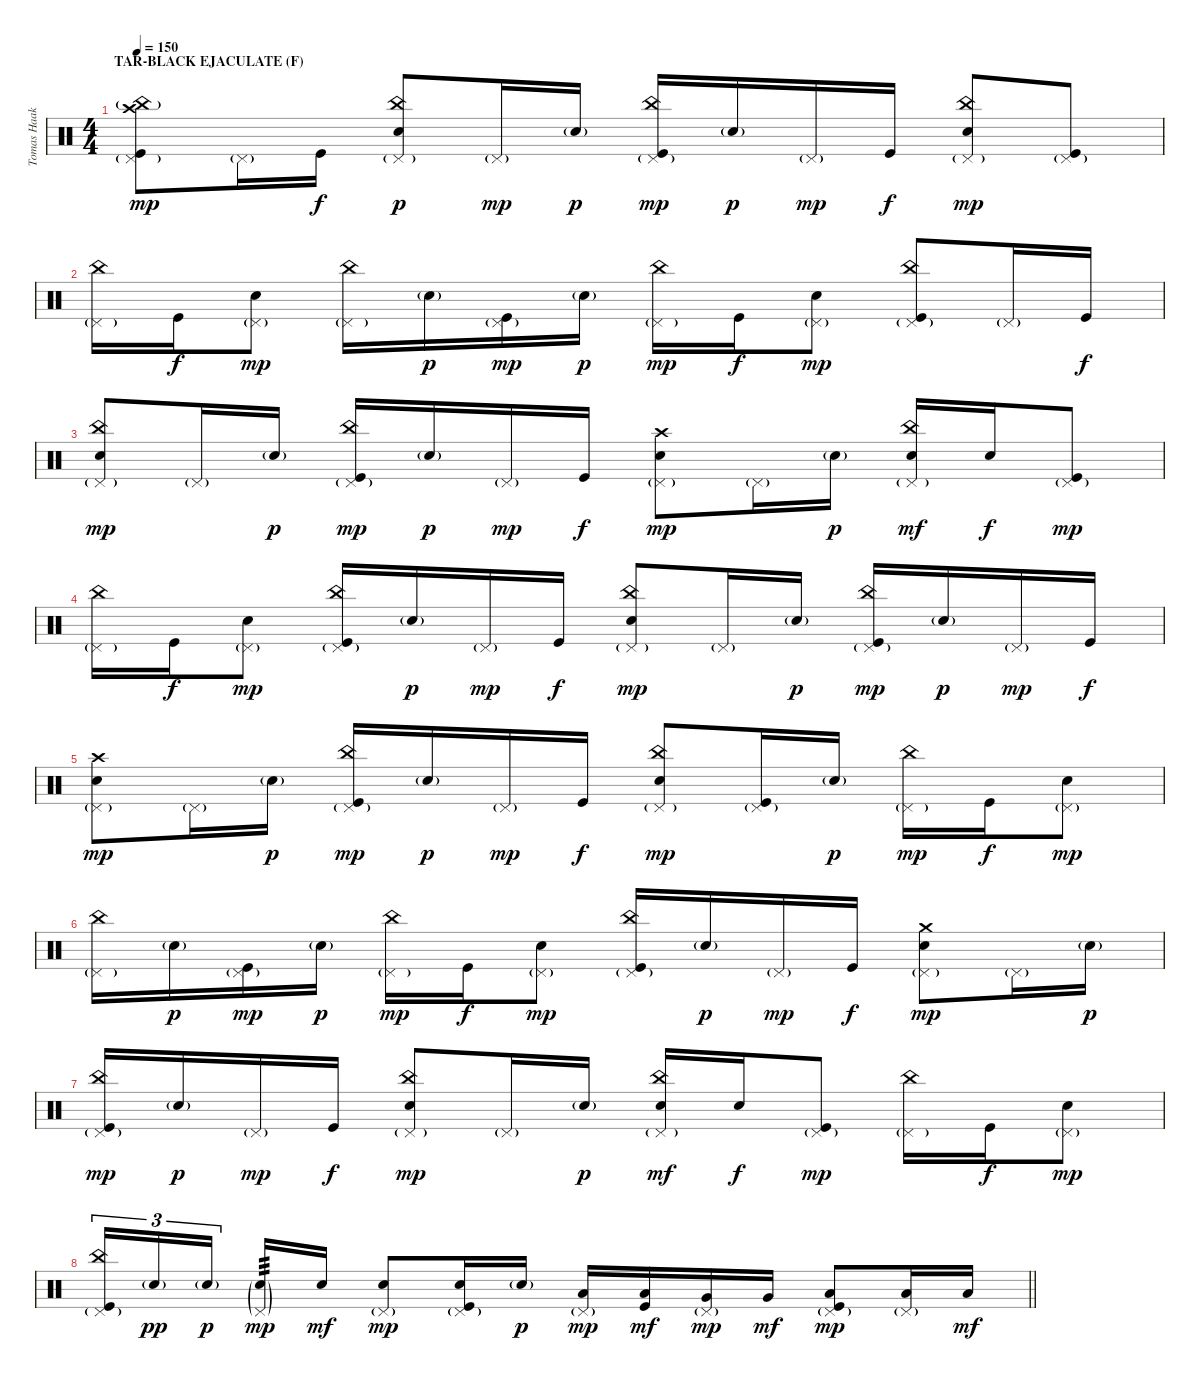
\track ("Tomas Haake (Drums)" "Tomas Haak") {instrument percussion}
\staff {score}
\articulation defaults
\ts (4 4)
\section ("" "TAR-BLACK EJACULATE (F)")
\tempo 150
\clef neutral
\ks c
("Crash high (hit)" "Pedal Hi-Hat (hit)"{g} "China (hit)"{g} "Kick (hit)").8{dy mp} "Pedal Hi-Hat (hit)"{g}.16 "Kick (hit)".16{dy f} ("China (hit)" "Pedal Hi-Hat (hit)"{g} "Electric Snare (hit)").8{dy p} "Pedal Hi-Hat (hit)"{g}.16{dy mp} "Electric Snare (hit)"{g}.16{dy p} ("China (hit)" "Pedal Hi-Hat (hit)"{g} "Kick (hit)").16{dy mp} "Electric Snare (hit)"{g}.16{dy p} "Pedal Hi-Hat (hit)"{g}.16{dy mp} "Kick (hit)".16{dy f} ("China (hit)" "Pedal Hi-Hat (hit)"{g} "Electric Snare (hit)").8{dy mp} ("Pedal Hi-Hat (hit)"{g} "Kick (hit)").8 |
("China (hit)" "Pedal Hi-Hat (hit)"{g}).16 "Kick (hit)".16{dy f} ("Pedal Hi-Hat (hit)"{g} "Electric Snare (hit)").8{dy mp} ("China (hit)" "Pedal Hi-Hat (hit)"{g}).16 "Electric Snare (hit)"{g}.16{dy p} ("Pedal Hi-Hat (hit)"{g} "Kick (hit)").16{dy mp} "Electric Snare (hit)"{g}.16{dy p} ("China (hit)" "Pedal Hi-Hat (hit)"{g}).16{dy mp} "Kick (hit)".16{dy f} ("Pedal Hi-Hat (hit)"{g} "Electric Snare (hit)").8{dy mp} ("China (hit)" "Pedal Hi-Hat (hit)"{g} "Kick (hit)").8 "Pedal Hi-Hat (hit)"{g}.16 "Kick (hit)".16{dy f} |
("China (hit)" "Pedal Hi-Hat (hit)"{g} "Electric Snare (hit)").8{dy mp} "Pedal Hi-Hat (hit)"{g}.16 "Electric Snare (hit)"{g}.16{dy p} ("China (hit)" "Pedal Hi-Hat (hit)"{g} "Kick (hit)").16{dy mp} "Electric Snare (hit)"{g}.16{dy p} "Pedal Hi-Hat (hit)"{g}.16{dy mp} "Kick (hit)".16{dy f} ("Crash high (hit)" "Pedal Hi-Hat (hit)"{g} "Electric Snare (hit)").8{dy mp} "Pedal Hi-Hat (hit)"{g}.16 "Electric Snare (hit)"{g}.16{dy p} ("China (hit)" "Pedal Hi-Hat (hit)"{g} "Electric Snare (hit)").16{dy mf} "Electric Snare (hit)".16{dy f} ("Pedal Hi-Hat (hit)"{g} "Kick (hit)").8{dy mp} |
("China (hit)" "Pedal Hi-Hat (hit)"{g}).16 "Kick (hit)".16{dy f} ("Pedal Hi-Hat (hit)"{g} "Electric Snare (hit)").8{dy mp} ("China (hit)" "Pedal Hi-Hat (hit)"{g} "Kick (hit)").16 "Electric Snare (hit)"{g}.16{dy p} "Pedal Hi-Hat (hit)"{g}.16{dy mp} "Kick (hit)".16{dy f} ("China (hit)" "Pedal Hi-Hat (hit)"{g} "Electric Snare (hit)").8{dy mp} "Pedal Hi-Hat (hit)"{g}.16 "Electric Snare (hit)"{g}.16{dy p} ("China (hit)" "Pedal Hi-Hat (hit)"{g} "Kick (hit)").16{dy mp} "Electric Snare (hit)"{g}.16{dy p} "Pedal Hi-Hat (hit)"{g}.16{dy mp} "Kick (hit)".16{dy f} |
("Crash high (hit)" "Pedal Hi-Hat (hit)"{g} "Electric Snare (hit)").8{dy mp} "Pedal Hi-Hat (hit)"{g}.16 "Electric Snare (hit)"{g}.16{dy p} ("China (hit)" "Pedal Hi-Hat (hit)"{g} "Kick (hit)").16{dy mp} "Electric Snare (hit)"{g}.16{dy p} "Pedal Hi-Hat (hit)"{g}.16{dy mp} "Kick (hit)".16{dy f} ("China (hit)" "Pedal Hi-Hat (hit)"{g} "Electric Snare (hit)").8{dy mp} ("Pedal Hi-Hat (hit)"{g} "Kick (hit)").16 "Electric Snare (hit)"{g}.16{dy p} ("China (hit)" "Pedal Hi-Hat (hit)"{g}).16{dy mp} "Kick (hit)".16{dy f} ("Pedal Hi-Hat (hit)"{g} "Electric Snare (hit)").8{dy mp} |
("China (hit)" "Pedal Hi-Hat (hit)"{g}).16 "Electric Snare (hit)"{g}.16{dy p} ("Pedal Hi-Hat (hit)"{g} "Kick (hit)").16{dy mp} "Electric Snare (hit)"{g}.16{dy p} ("China (hit)" "Pedal Hi-Hat (hit)"{g}).16{dy mp} "Kick (hit)".16{dy f} ("Pedal Hi-Hat (hit)"{g} "Electric Snare (hit)").8{dy mp} ("China (hit)" "Pedal Hi-Hat (hit)"{g} "Kick (hit)").16 "Electric Snare (hit)"{g}.16{dy p} "Pedal Hi-Hat (hit)"{g}.16{dy mp} "Kick (hit)".16{dy f} ("Crash medium (hit)" "Pedal Hi-Hat (hit)"{g} "Electric Snare (hit)").8{dy mp} "Pedal Hi-Hat (hit)"{g}.16 "Electric Snare (hit)"{g}.16{dy p} |
("China (hit)" "Pedal Hi-Hat (hit)"{g} "Kick (hit)").16{dy mp} "Electric Snare (hit)"{g}.16{dy p} "Pedal Hi-Hat (hit)"{g}.16{dy mp} "Kick (hit)".16{dy f} ("China (hit)" "Pedal Hi-Hat (hit)"{g} "Electric Snare (hit)").8{dy mp} "Pedal Hi-Hat (hit)"{g}.16 "Electric Snare (hit)"{g}.16{dy p} ("China (hit)" "Pedal Hi-Hat (hit)"{g} "Electric Snare (hit)").16{dy mf} "Electric Snare (hit)".16{dy f} ("Pedal Hi-Hat (hit)"{g} "Kick (hit)").8{dy mp} ("China (hit)" "Pedal Hi-Hat (hit)"{g}).16 "Kick (hit)".16{dy f} ("Pedal Hi-Hat (hit)"{g} "Electric Snare (hit)").8{dy mp} |
\barLineRight lightlight
("China (hit)" "Pedal Hi-Hat (hit)"{g} "Kick (hit)").16{tu (3 2)} "Electric Snare (hit)"{g}.16{tu (3 2) dy pp} "Electric Snare (hit)"{g}.16{tu (3 2) dy p beam splitsecondary} ("Pedal Hi-Hat (hit)"{g} "Electric Snare (hit)"{g}).16{tp 3 dy mp} "Electric Snare (hit)".16{dy mf} ("Pedal Hi-Hat (hit)"{g} "Electric Snare (hit)").8{dy mp} ("Pedal Hi-Hat (hit)"{g} "Electric Snare (hit)" "Kick (hit)").16 "Electric Snare (hit)"{g}.16{dy p} ("Pedal Hi-Hat (hit)"{g} "Low Tom (hit)").16{dy mp} ("Low Tom (hit)" "Kick (hit)").16{dy mf} ("Pedal Hi-Hat (hit)"{g} "Very Low Tom (hit)").16{dy mp} "Very Low Tom (hit)".16{dy mf} ("Pedal Hi-Hat (hit)"{g} "Low Floor Tom (hit)" "Kick (hit)").8{dy mp} ("Pedal Hi-Hat (hit)"{g} "Low Floor Tom (hit)").16 "Low Floor Tom (hit)".16{dy mf}
